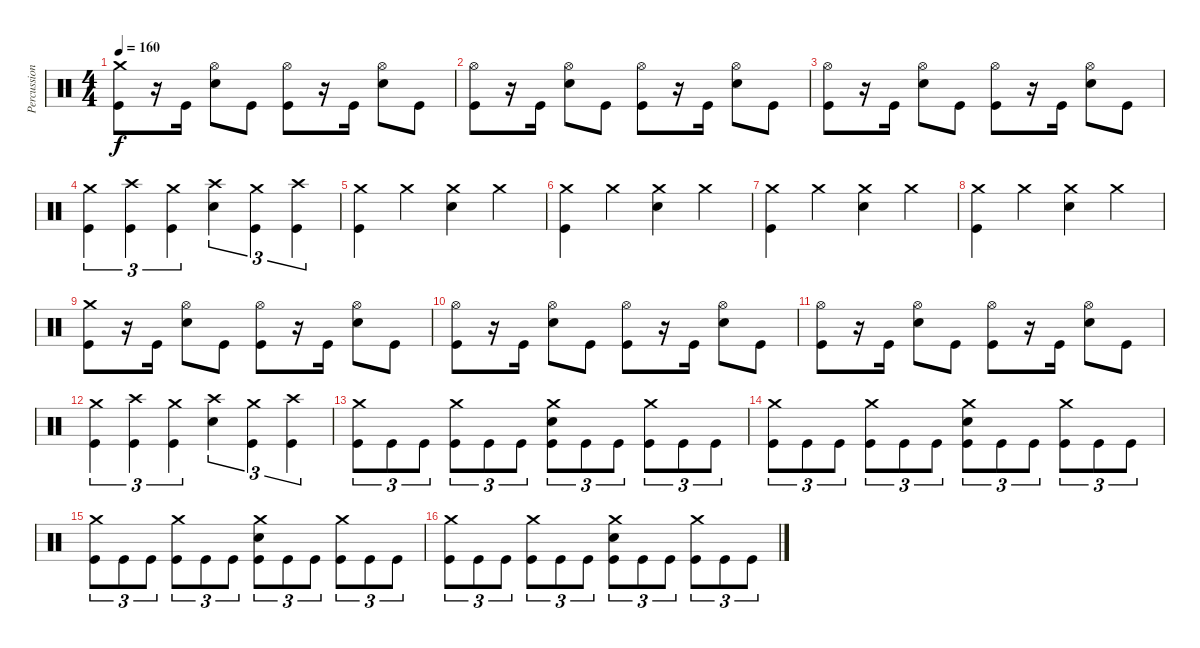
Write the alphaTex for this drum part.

\track ("Percussion" "Percussion") {instrument percussion}
\staff {score}
\articulation defaults
\ts (4 4)
\tempo 160
\clef neutral
\ks c
("Crash medium (hit)" "Kick (hit)").8{dy f} r.16 "Kick (hit)".16 ("Hi-Hat (open)" "Electric Snare (hit)").8 "Kick (hit)".8 ("Hi-Hat (open)" "Kick (hit)").8 r.16 "Kick (hit)".16 ("Hi-Hat (open)" "Electric Snare (hit)").8 "Kick (hit)".8 |
("Hi-Hat (open)" "Kick (hit)").8 r.16 "Kick (hit)".16 ("Hi-Hat (open)" "Electric Snare (hit)").8 "Kick (hit)".8 ("Hi-Hat (open)" "Kick (hit)").8 r.16 "Kick (hit)".16 ("Hi-Hat (open)" "Electric Snare (hit)").8 "Kick (hit)".8 |
("Hi-Hat (open)" "Kick (hit)").8 r.16 "Kick (hit)".16 ("Hi-Hat (open)" "Electric Snare (hit)").8 "Kick (hit)".8 ("Hi-Hat (open)" "Kick (hit)").8 r.16 "Kick (hit)".16 ("Hi-Hat (open)" "Electric Snare (hit)").8 "Kick (hit)".8 |
("Crash medium (hit)" "Kick (hit)").4{tu (3 2)} ("Crash high (hit)" "Kick (hit)").4{tu (3 2)} ("Crash medium (hit)" "Kick (hit)").4{tu (3 2)} ("Crash high (hit)" "Electric Snare (hit)").4{tu (3 2)} ("Crash medium (hit)" "Kick (hit)").4{tu (3 2)} ("Crash high (hit)" "Kick (hit)").4{tu (3 2)} |
("Crash medium (hit)" "Kick (hit)").4 "Crash medium (hit)".4 ("Crash medium (hit)" "Electric Snare (hit)").4 "Crash medium (hit)".4 |
("Crash medium (hit)" "Kick (hit)").4 "Crash medium (hit)".4 ("Crash medium (hit)" "Electric Snare (hit)").4 "Crash medium (hit)".4 |
("Crash medium (hit)" "Kick (hit)").4 "Crash medium (hit)".4 ("Crash medium (hit)" "Electric Snare (hit)").4 "Crash medium (hit)".4 |
("Crash medium (hit)" "Kick (hit)").4 "Crash medium (hit)".4 ("Crash medium (hit)" "Electric Snare (hit)").4 "Crash medium (hit)".4 |
("Crash medium (hit)" "Kick (hit)").8 r.16 "Kick (hit)".16 ("Hi-Hat (open)" "Electric Snare (hit)").8 "Kick (hit)".8 ("Hi-Hat (open)" "Kick (hit)").8 r.16 "Kick (hit)".16 ("Hi-Hat (open)" "Electric Snare (hit)").8 "Kick (hit)".8 |
("Hi-Hat (open)" "Kick (hit)").8 r.16 "Kick (hit)".16 ("Hi-Hat (open)" "Electric Snare (hit)").8 "Kick (hit)".8 ("Hi-Hat (open)" "Kick (hit)").8 r.16 "Kick (hit)".16 ("Hi-Hat (open)" "Electric Snare (hit)").8 "Kick (hit)".8 |
("Hi-Hat (open)" "Kick (hit)").8 r.16 "Kick (hit)".16 ("Hi-Hat (open)" "Electric Snare (hit)").8 "Kick (hit)".8 ("Hi-Hat (open)" "Kick (hit)").8 r.16 "Kick (hit)".16 ("Hi-Hat (open)" "Electric Snare (hit)").8 "Kick (hit)".8 |
("Crash medium (hit)" "Kick (hit)").4{tu (3 2)} ("Crash high (hit)" "Kick (hit)").4{tu (3 2)} ("Crash medium (hit)" "Kick (hit)").4{tu (3 2)} ("Crash high (hit)" "Electric Snare (hit)").4{tu (3 2)} ("Crash medium (hit)" "Kick (hit)").4{tu (3 2)} ("Crash high (hit)" "Kick (hit)").4{tu (3 2)} |
("Crash medium (hit)" "Kick (hit)").8{tu (3 2)} "Kick (hit)".8{tu (3 2)} "Kick (hit)".8{tu (3 2)} ("Crash medium (hit)" "Kick (hit)").8{tu (3 2)} "Kick (hit)".8{tu (3 2)} "Kick (hit)".8{tu (3 2)} ("Crash medium (hit)" "Electric Snare (hit)" "Kick (hit)").8{tu (3 2)} "Kick (hit)".8{tu (3 2)} "Kick (hit)".8{tu (3 2)} ("Crash medium (hit)" "Kick (hit)").8{tu (3 2)} "Kick (hit)".8{tu (3 2)} "Kick (hit)".8{tu (3 2)} |
("Crash medium (hit)" "Kick (hit)").8{tu (3 2)} "Kick (hit)".8{tu (3 2)} "Kick (hit)".8{tu (3 2)} ("Crash medium (hit)" "Kick (hit)").8{tu (3 2)} "Kick (hit)".8{tu (3 2)} "Kick (hit)".8{tu (3 2)} ("Crash medium (hit)" "Electric Snare (hit)" "Kick (hit)").8{tu (3 2)} "Kick (hit)".8{tu (3 2)} "Kick (hit)".8{tu (3 2)} ("Crash medium (hit)" "Kick (hit)").8{tu (3 2)} "Kick (hit)".8{tu (3 2)} "Kick (hit)".8{tu (3 2)} |
("Crash medium (hit)" "Kick (hit)").8{tu (3 2)} "Kick (hit)".8{tu (3 2)} "Kick (hit)".8{tu (3 2)} ("Crash medium (hit)" "Kick (hit)").8{tu (3 2)} "Kick (hit)".8{tu (3 2)} "Kick (hit)".8{tu (3 2)} ("Crash medium (hit)" "Electric Snare (hit)" "Kick (hit)").8{tu (3 2)} "Kick (hit)".8{tu (3 2)} "Kick (hit)".8{tu (3 2)} ("Crash medium (hit)" "Kick (hit)").8{tu (3 2)} "Kick (hit)".8{tu (3 2)} "Kick (hit)".8{tu (3 2)} |
("Crash medium (hit)" "Kick (hit)").8{tu (3 2)} "Kick (hit)".8{tu (3 2)} "Kick (hit)".8{tu (3 2)} ("Crash medium (hit)" "Kick (hit)").8{tu (3 2)} "Kick (hit)".8{tu (3 2)} "Kick (hit)".8{tu (3 2)} ("Crash medium (hit)" "Electric Snare (hit)" "Kick (hit)").8{tu (3 2)} "Kick (hit)".8{tu (3 2)} "Kick (hit)".8{tu (3 2)} ("Crash medium (hit)" "Kick (hit)").8{tu (3 2)} "Kick (hit)".8{tu (3 2)} "Kick (hit)".8{tu (3 2)}
